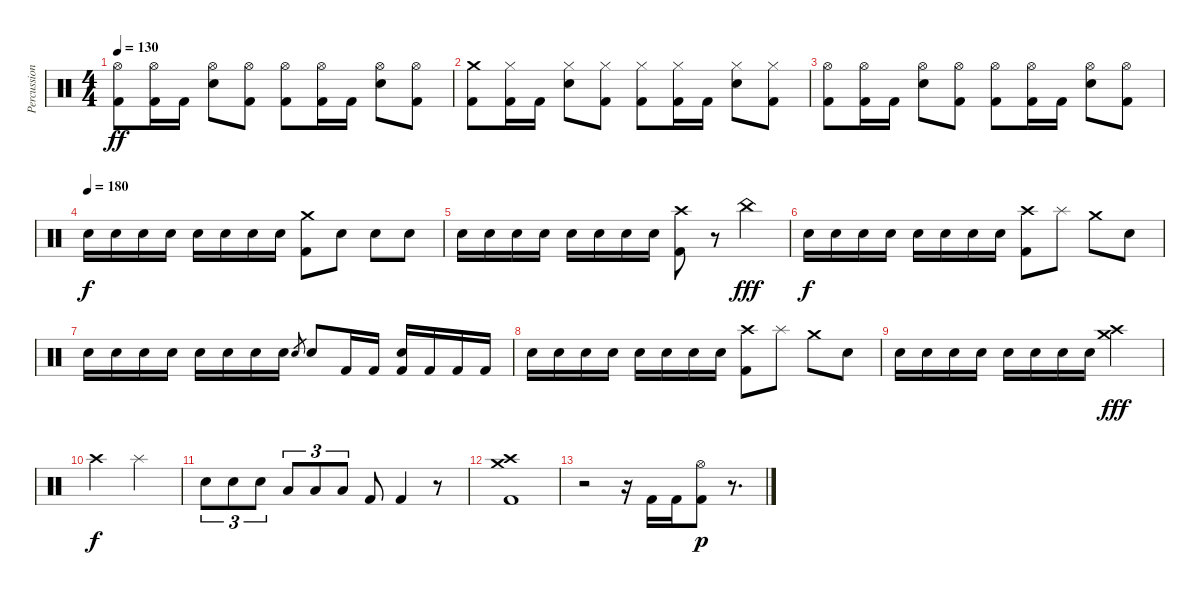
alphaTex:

\track ("Percussioni" "Percussion") {instrument percussion}
\staff {score}
\articulation defaults
\ts (4 4)
\tempo 130
\clef neutral
\ks c
("Hi-Hat (open)" "Kick (hit) 2").8{dy ff} ("Hi-Hat (open)" "Kick (hit) 2").16 "Kick (hit) 2".16 ("Hi-Hat (open)" "Electric Snare (hit)").8 ("Hi-Hat (open)" "Kick (hit) 2").8 ("Hi-Hat (open)" "Kick (hit) 2").8 ("Hi-Hat (open)" "Kick (hit) 2").16 "Kick (hit) 2".16 ("Hi-Hat (open)" "Electric Snare (hit)").8 ("Hi-Hat (open)" "Kick (hit) 2").8 |
("Crash medium (hit)" "Kick (hit) 2").8 ("Hi-Hat (closed)" "Kick (hit) 2").16 "Kick (hit) 2".16 ("Hi-Hat (closed)" "Electric Snare (hit)").8 ("Hi-Hat (closed)" "Kick (hit) 2").8 ("Hi-Hat (closed)" "Kick (hit) 2").8 ("Hi-Hat (closed)" "Kick (hit) 2").16 "Kick (hit) 2".16 ("Hi-Hat (closed)" "Electric Snare (hit)").8 ("Hi-Hat (closed)" "Kick (hit) 2").8 |
("Hi-Hat (open)" "Kick (hit) 2").8 ("Hi-Hat (open)" "Kick (hit) 2").16 "Kick (hit) 2".16 ("Hi-Hat (open)" "Electric Snare (hit)").8 ("Hi-Hat (open)" "Kick (hit) 2").8 ("Hi-Hat (open)" "Kick (hit) 2").8 ("Hi-Hat (open)" "Kick (hit) 2").16 "Kick (hit) 2".16 ("Hi-Hat (open)" "Electric Snare (hit)").8 ("Hi-Hat (open)" "Kick (hit) 2").8 |
\tempo (180)
"Electric Snare (hit)".16{dy f} "Electric Snare (hit)".16 "Electric Snare (hit)".16 "Electric Snare (hit)".16 "Electric Snare (hit)".16 "Electric Snare (hit)".16 "Electric Snare (hit)".16 "Electric Snare (hit)".16 ("Crash medium (hit)" "Kick (hit) 2").8 "Electric Snare (hit)".8 "Electric Snare (hit)".8 "Electric Snare (hit)".8 |
"Electric Snare (hit)".16 "Electric Snare (hit)".16 "Electric Snare (hit)".16 "Electric Snare (hit)".16 "Electric Snare (hit)".16 "Electric Snare (hit)".16 "Electric Snare (hit)".16 "Electric Snare (hit)".16 ("Crash high (hit)" "Kick (hit) 2").8 r.8 "China (hit)".4{dy fff} |
"Electric Snare (hit)".16{dy f} "Electric Snare (hit)".16 "Electric Snare (hit)".16 "Electric Snare (hit)".16 "Electric Snare (hit)".16 "Electric Snare (hit)".16 "Electric Snare (hit)".16 "Electric Snare (hit)".16 ("Crash high (hit)" "Kick (hit) 2").8 "Splash (hit)".8 "Crash medium (hit)".8 "Electric Snare (hit)".8 |
"Electric Snare (hit)".16 "Electric Snare (hit)".16 "Electric Snare (hit)".16 "Electric Snare (hit)".16 "Electric Snare (hit)".16 "Electric Snare (hit)".16 "Electric Snare (hit)".16 "Electric Snare (hit)".16 "Electric Snare (hit)".8{gr} "Electric Snare (hit)".8 "Kick (hit) 2".16 "Kick (hit) 2".16 ("Electric Snare (hit)" "Kick (hit) 2").16 "Kick (hit) 2".16 "Kick (hit) 2".16 "Kick (hit) 2".16 |
"Electric Snare (hit)".16 "Electric Snare (hit)".16 "Electric Snare (hit)".16 "Electric Snare (hit)".16 "Electric Snare (hit)".16 "Electric Snare (hit)".16 "Electric Snare (hit)".16 "Electric Snare (hit)".16 ("Crash high (hit)" "Kick (hit) 2").8 "Splash (hit)".8 "Crash medium (hit)".8 "Electric Snare (hit)".8 |
"Electric Snare (hit)".16 "Electric Snare (hit)".16 "Electric Snare (hit)".16 "Electric Snare (hit)".16 "Electric Snare (hit)".16 "Electric Snare (hit)".16 "Electric Snare (hit)".16 "Electric Snare (hit)".16 ("Crash high (hit)" "Crash medium (hit)").2{dy fff} |
"Crash high (hit)".2{dy f} "Splash (hit)".2 |
"Electric Snare (hit)".8{tu (3 2)} "Electric Snare (hit)".8{tu (3 2)} "Electric Snare (hit)".8{tu (3 2)} "Low Tom (hit)".8{tu (3 2)} "Low Tom (hit)".8{tu (3 2)} "Low Tom (hit)".8{tu (3 2)} "Kick (hit) 2".8 "Kick (hit) 2".4 r.8 |
("Crash medium (hit)" "Crash high (hit)" "Kick (hit) 2").1 |
r.2 r.16 "Kick (hit) 2".16 "Kick (hit) 2".16 ("Hi-Hat (open)" "Kick (hit) 2").8{dy p} r.8{d}
